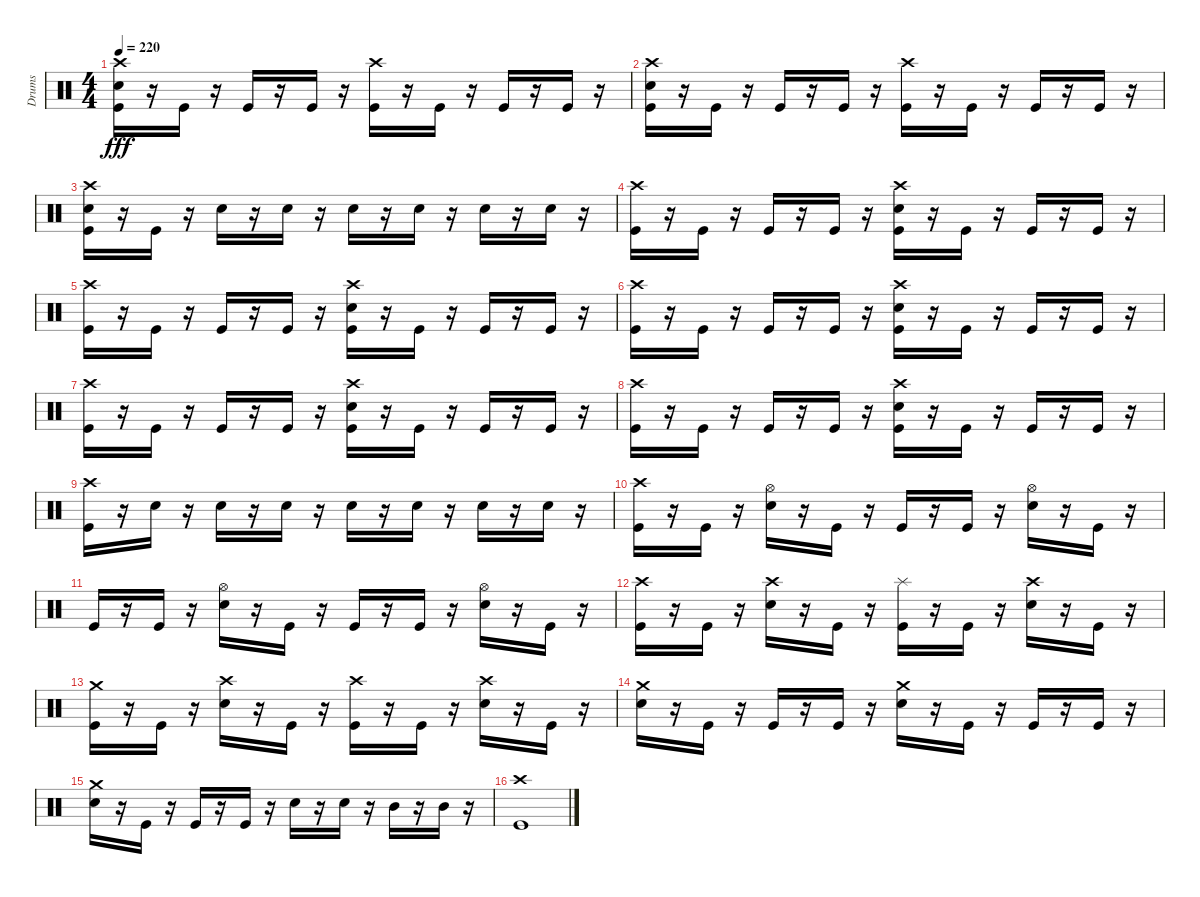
\track ("Drums" "Drums") {instrument percussion}
\staff {score}
\articulation defaults
\ts (4 4)
\tempo 220
\clef neutral
\ks c
("Crash high (hit)" "Electric Snare (hit)" "Kick (hit)").16{dy fff} r.16 "Kick (hit)".16 r.16 "Kick (hit)".16 r.16 "Kick (hit)".16 r.16 ("Crash high (hit)" "Kick (hit)").16 r.16 "Kick (hit)".16 r.16 "Kick (hit)".16 r.16 "Kick (hit)".16 r.16 |
("Crash high (hit)" "Electric Snare (hit)" "Kick (hit)").16 r.16 "Kick (hit)".16 r.16 "Kick (hit)".16 r.16 "Kick (hit)".16 r.16 ("Crash high (hit)" "Kick (hit)").16 r.16 "Kick (hit)".16 r.16 "Kick (hit)".16 r.16 "Kick (hit)".16 r.16 |
("Crash high (hit)" "Electric Snare (hit)" "Kick (hit)").16 r.16 "Kick (hit)".16 r.16 "Electric Snare (hit)".16 r.16 "Electric Snare (hit)".16 r.16 "Electric Snare (hit)".16 r.16 "Electric Snare (hit)".16 r.16 "Electric Snare (hit)".16 r.16 "Electric Snare (hit)".16 r.16 |
("Crash high (hit)" "Kick (hit)").16 r.16 "Kick (hit)".16 r.16 "Kick (hit)".16 r.16 "Kick (hit)".16 r.16 ("Crash high (hit)" "Electric Snare (hit)" "Kick (hit)").16 r.16 "Kick (hit)".16 r.16 "Kick (hit)".16 r.16 "Kick (hit)".16 r.16 |
("Crash high (hit)" "Kick (hit)").16 r.16 "Kick (hit)".16 r.16 "Kick (hit)".16 r.16 "Kick (hit)".16 r.16 ("Crash high (hit)" "Electric Snare (hit)" "Kick (hit)").16 r.16 "Kick (hit)".16 r.16 "Kick (hit)".16 r.16 "Kick (hit)".16 r.16 |
("Crash high (hit)" "Kick (hit)").16 r.16 "Kick (hit)".16 r.16 "Kick (hit)".16 r.16 "Kick (hit)".16 r.16 ("Crash high (hit)" "Electric Snare (hit)" "Kick (hit)").16 r.16 "Kick (hit)".16 r.16 "Kick (hit)".16 r.16 "Kick (hit)".16 r.16 |
("Crash high (hit)" "Kick (hit)").16 r.16 "Kick (hit)".16 r.16 "Kick (hit)".16 r.16 "Kick (hit)".16 r.16 ("Crash high (hit)" "Electric Snare (hit)" "Kick (hit)").16 r.16 "Kick (hit)".16 r.16 "Kick (hit)".16 r.16 "Kick (hit)".16 r.16 |
("Crash high (hit)" "Kick (hit)").16 r.16 "Kick (hit)".16 r.16 "Kick (hit)".16 r.16 "Kick (hit)".16 r.16 ("Crash high (hit)" "Electric Snare (hit)" "Kick (hit)").16 r.16 "Kick (hit)".16 r.16 "Kick (hit)".16 r.16 "Kick (hit)".16 r.16 |
("Crash high (hit)" "Kick (hit)").16 r.16 "Electric Snare (hit)".16 r.16 "Electric Snare (hit)".16 r.16 "Electric Snare (hit)".16 r.16 "Electric Snare (hit)".16 r.16 "Electric Snare (hit)".16 r.16 "Electric Snare (hit)".16 r.16 "Electric Snare (hit)".16 r.16 |
("Crash high (hit)" "Kick (hit)").16 r.16 "Kick (hit)".16 r.16 ("Hi-Hat (open)" "Electric Snare (hit)").16 r.16 "Kick (hit)".16 r.16 "Kick (hit)".16 r.16 "Kick (hit)".16 r.16 ("Hi-Hat (open)" "Electric Snare (hit)").16 r.16 "Kick (hit)".16 r.16 |
"Kick (hit)".16 r.16 "Kick (hit)".16 r.16 ("Hi-Hat (open)" "Electric Snare (hit)").16 r.16 "Kick (hit)".16 r.16 "Kick (hit)".16 r.16 "Kick (hit)".16 r.16 ("Hi-Hat (open)" "Electric Snare (hit)").16 r.16 "Kick (hit)".16 r.16 |
("Crash high (hit)" "Kick (hit)").16 r.16 "Kick (hit)".16 r.16 ("Crash high (hit)" "Electric Snare (hit)").16 r.16 "Kick (hit)".16 r.16 ("Splash (hit)" "Kick (hit)").16 r.16 "Kick (hit)".16 r.16 ("Crash high (hit)" "Electric Snare (hit)").16 r.16 "Kick (hit)".16 r.16 |
("Crash medium (hit)" "Kick (hit)").16 r.16 "Kick (hit)".16 r.16 ("Crash high (hit)" "Electric Snare (hit)").16 r.16 "Kick (hit)".16 r.16 ("Crash high (hit)" "Kick (hit)").16 r.16 "Kick (hit)".16 r.16 ("Crash high (hit)" "Electric Snare (hit)").16 r.16 "Kick (hit)".16 r.16 |
("Crash medium (hit)" "Electric Snare (hit)").16 r.16 "Kick (hit)".16 r.16 "Kick (hit)".16 r.16 "Kick (hit)".16 r.16 ("Crash medium (hit)" "Electric Snare (hit)").16 r.16 "Kick (hit)".16 r.16 "Kick (hit)".16 r.16 "Kick (hit)".16 r.16 |
("Crash medium (hit)" "Electric Snare (hit)").16 r.16 "Kick (hit)".16 r.16 "Kick (hit)".16 r.16 "Kick (hit)".16 r.16 "Electric Snare (hit)".16 r.16 "Electric Snare (hit)".16 r.16 "Mid Tom (hit)".16 r.16 "Mid Tom (hit)".16 r.16 |
("Crash high (hit)" "Kick (hit)").1
